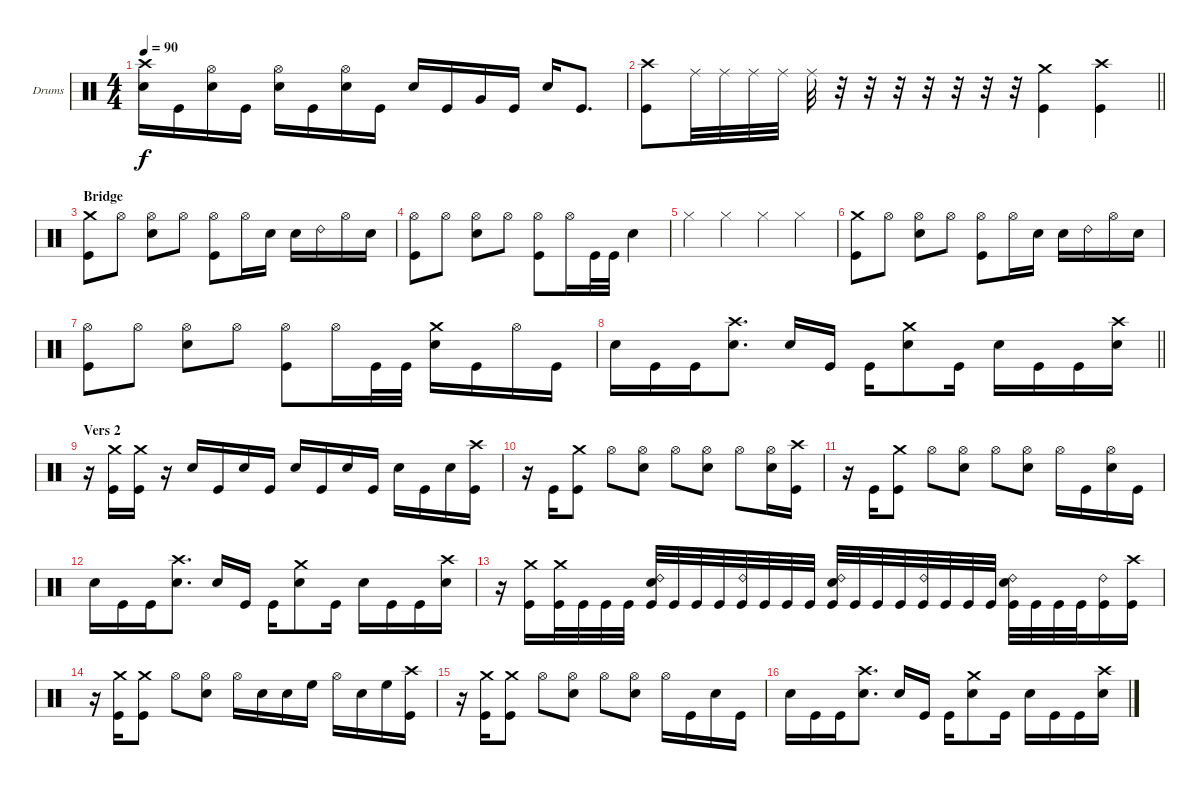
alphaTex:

\bracketExtendMode groupsimilarinstruments
\firstSystemTrackNameOrientation horizontal
\otherSystemsTrackNameOrientation horizontal
\track ("Drumkit" "Drums") {instrument percussion}
\staff {score}
\articulation defaults
\ts (4 4)
\tempo 90
\clef neutral
\ks c
("Crash high (hit)" "Snare (hit) 2").16{dy f} "Kick (hit)".16 ("Hi-Hat (open)" "Snare (hit) 2").16 "Kick (hit)".16 ("Hi-Hat (open)" "Snare (hit) 2").16 "Kick (hit)".16 ("Hi-Hat (open)" "Snare (hit) 2").16 "Kick (hit)".16 "Snare (hit) 2".16 "Kick (hit)".16 "Very Low Tom (hit)".16 "Kick (hit)".16 "Snare (hit) 2".16 "Kick (hit)".8{d} |
\barLineRight lightlight
("Crash high (hit)" "Kick (hit)").8 "Ride (middle)".32 "Ride (middle)".32 "Ride (middle)".32 "Ride (middle)".32 "Ride (middle)".32 r.32 r.32 r.32 r.32 r.32 r.32 r.32 ("Crash medium (hit)" "Kick (hit)").4 ("Crash high (hit)" "Kick (hit)").4 |
\section ("" "Bridge")
("Crash medium (hit)" "Kick (hit)").8 "Hi-Hat (open)".8 ("Hi-Hat (open)" "Snare (hit) 2").8 "Hi-Hat (open)".8 ("Hi-Hat (open)" "Kick (hit)").8 "Hi-Hat (open)".16 "Snare (hit) 2".16 "Snare (hit) 2".16 "Ride (bell) 2".16 "Hi-Hat (open)".16 "Snare (hit) 2".16 |
("Hi-Hat (open)" "Kick (hit)").8 "Hi-Hat (open)".8 ("Hi-Hat (open)" "Snare (hit) 2").8 "Hi-Hat (open)".8 ("Hi-Hat (open)" "Kick (hit)").8 "Hi-Hat (open)".16 "Kick (hit)".32 "Kick (hit)".32 "Snare (hit) 2".4 |
"Hi-Hat (closed)".4 "Hi-Hat (closed)".4 "Hi-Hat (closed)".4 "Hi-Hat (closed)".4 |
("Crash medium (hit)" "Kick (hit)").8 "Hi-Hat (open)".8 ("Hi-Hat (open)" "Snare (hit) 2").8 "Hi-Hat (open)".8 ("Hi-Hat (open)" "Kick (hit)").8 "Hi-Hat (open)".16 "Snare (hit) 2".16 "Snare (hit) 2".16 "Ride (bell) 2".16 "Hi-Hat (open)".16 "Snare (hit) 2".16 |
("Hi-Hat (open)" "Kick (hit)").8 "Hi-Hat (open)".8 ("Hi-Hat (open)" "Snare (hit) 2").8 "Hi-Hat (open)".8 ("Hi-Hat (open)" "Kick (hit)").8 "Hi-Hat (open)".16 "Kick (hit)".32 "Kick (hit)".32 ("Crash medium (hit)" "Snare (hit) 2").16 "Kick (hit)".16 "Hi-Hat (open)".16 "Kick (hit)".16 |
\barLineRight lightlight "Snare (hit) 2".16 "Kick (hit)".16 "Kick (hit)".16
("Crash high (hit)" "Snare (hit) 2").8{d} "Snare (hit) 2".16 "Kick (hit)".16 "Kick (hit)".16 ("Crash medium (hit)" "Snare (hit) 2").8 "Kick (hit)".16 "Snare (hit) 2".16 "Kick (hit)".16 "Kick (hit)".16 ("Crash high (hit)" "Snare (hit) 2").16 |
\section ("" "Vers 2")
r.16 ("Crash medium (hit)" "Kick (hit)").16 ("Crash medium (hit)" "Kick (hit)").16 r.16 "Snare (hit) 2".16 "Kick (hit)".16 "Snare (hit) 2".16 "Kick (hit)".16 "Snare (hit) 2".16 "Kick (hit)".16 "Snare (hit) 2".16 "Kick (hit)".16 "Snare (hit) 2".16 "Kick (hit)".16 "Snare (hit) 2".16 ("Crash high (hit)" "Kick (hit)").16 |
r.16 "Kick (hit)".16 ("Crash medium (hit)" "Kick (hit)").8 "Hi-Hat (open)".8 ("Hi-Hat (open)" "Snare (hit) 2").8 "Hi-Hat (open)".8 ("Hi-Hat (open)" "Snare (hit) 2").8 "Hi-Hat (open)".8 ("Hi-Hat (open)" "Snare (hit) 2").16 ("Crash high (hit)" "Kick (hit)").16 |
r.16 "Kick (hit)".16 ("Crash medium (hit)" "Kick (hit)").8 "Hi-Hat (open)".8 ("Hi-Hat (open)" "Snare (hit) 2").8 "Hi-Hat (open)".8 ("Hi-Hat (open)" "Snare (hit) 2").8 "Hi-Hat (open)".16 "Kick (hit)".16 ("Hi-Hat (open)" "Snare (hit) 2").16 "Kick (hit)".16 |
"Snare (hit) 2".16 "Kick (hit)".16 "Kick (hit)".16 ("Crash high (hit)" "Snare (hit) 2").8{d} "Snare (hit) 2".16 "Kick (hit)".16 "Kick (hit)".16 ("Crash medium (hit)" "Snare (hit) 2").8 "Kick (hit)".16 "Snare (hit) 2".16 "Kick (hit)".16 "Kick (hit)".16 ("Crash high (hit)" "Snare (hit) 2").16 |
r.16 ("Crash medium (hit)" "Kick (hit)").16 ("Crash medium (hit)" "Kick (hit)").32 "Kick (hit)".32 "Kick (hit)".32 "Kick (hit)".32 ("Ride (bell) 2" "Snare (hit) 2" "Kick (hit)").32 "Kick (hit)".32 "Kick (hit)".32 "Kick (hit)".32 ("Ride (bell) 2" "Kick (hit)").32 "Kick (hit)".32 "Kick (hit)".32 "Kick (hit)".32 ("Ride (bell) 2" "Snare (hit) 2" "Kick (hit)").32 "Kick (hit)".32 "Kick (hit)".32 "Kick (hit)".32 ("Ride (bell) 2" "Kick (hit)").32 "Kick (hit)".32 "Kick (hit)".32 "Kick (hit)".32 ("Ride (bell) 2" "Snare (hit) 2" "Kick (hit)").32 "Kick (hit)".32 "Kick (hit)".32 "Kick (hit)".32 ("Ride (bell) 2" "Kick (hit)").16 ("Crash high (hit)" "Kick (hit)").16 |
r.16 ("Crash medium (hit)" "Kick (hit)").16 ("Crash medium (hit)" "Kick (hit)").8 "Hi-Hat (open)".8 ("Hi-Hat (open)" "Snare (hit) 2").8 "Hi-Hat (open)".16 "Snare (hit) 2".16 "Snare (hit) 2".16 "High Floor Tom (hit)".16 "Hi-Hat (open)".16 "Snare (hit) 2".16 "High Floor Tom (hit)".16 ("Crash high (hit)" "Kick (hit)").16 |
r.16 ("Crash medium (hit)" "Kick (hit)").16 ("Crash medium (hit)" "Kick (hit)").8 "Hi-Hat (open)".8 ("Hi-Hat (open)" "Snare (hit) 2").8 "Hi-Hat (open)".8 ("Hi-Hat (open)" "Snare (hit) 2").8 "Hi-Hat (open)".16 "Kick (hit)".16 "Snare (hit) 2".16 "Kick (hit)".16 |
"Snare (hit) 2".16 "Kick (hit)".16 "Kick (hit)".16 ("Crash high (hit)" "Snare (hit) 2").8{d} "Snare (hit) 2".16 "Kick (hit)".16 "Kick (hit)".16 ("Crash medium (hit)" "Snare (hit) 2").8 "Kick (hit)".16 "Snare (hit) 2".16 "Kick (hit)".16 "Kick (hit)".16 ("Crash high (hit)" "Snare (hit) 2").16
